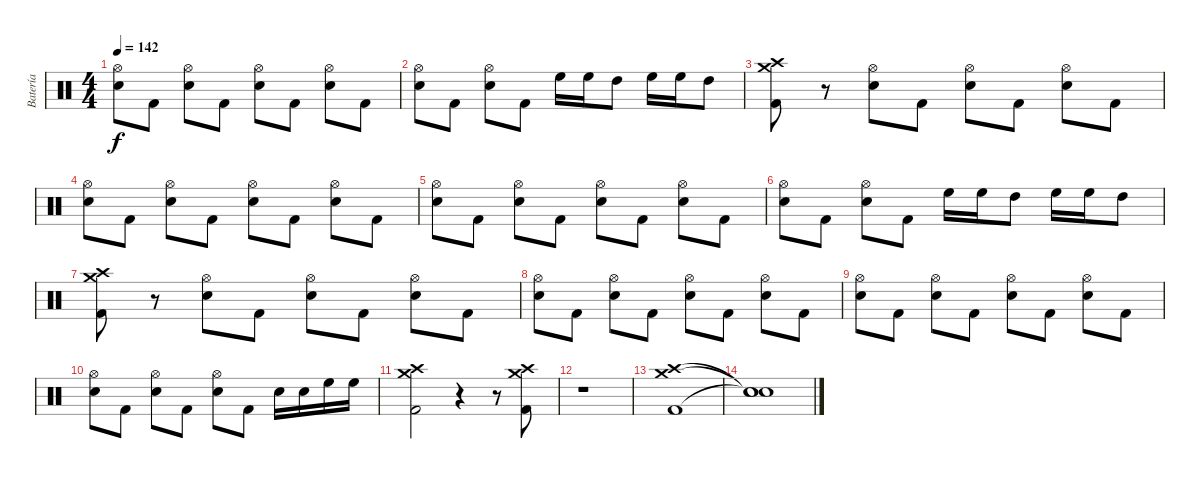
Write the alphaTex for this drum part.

\track ("Batería" "Batería") {instrument percussion}
\staff {score}
\articulation defaults
\ts (4 4)
\tempo 142
\clef neutral
\ks c
("Hi-Hat (open)" "Electric Snare (hit)").8{dy f} "Kick (hit) 2".8 ("Hi-Hat (open)" "Electric Snare (hit)").8 "Kick (hit) 2".8 ("Hi-Hat (open)" "Electric Snare (hit)").8 "Kick (hit) 2".8 ("Hi-Hat (open)" "Electric Snare (hit)").8 "Kick (hit) 2".8 |
("Hi-Hat (open)" "Electric Snare (hit)").8 "Kick (hit) 2".8 ("Hi-Hat (open)" "Electric Snare (hit)").8 "Kick (hit) 2".8 "High Floor Tom (hit)".16 "High Floor Tom (hit)".16 "High Tom (hit)".8 "High Floor Tom (hit)".16 "High Floor Tom (hit)".16 "High Tom (hit)".8 |
("Crash high (hit)" "Crash medium (hit)" "Kick (hit) 2").8 r.8 ("Hi-Hat (open)" "Electric Snare (hit)").8 "Kick (hit) 2".8 ("Hi-Hat (open)" "Electric Snare (hit)").8 "Kick (hit) 2".8 ("Hi-Hat (open)" "Electric Snare (hit)").8 "Kick (hit) 2".8 |
("Hi-Hat (open)" "Electric Snare (hit)").8 "Kick (hit) 2".8 ("Hi-Hat (open)" "Electric Snare (hit)").8 "Kick (hit) 2".8 ("Hi-Hat (open)" "Electric Snare (hit)").8 "Kick (hit) 2".8 ("Hi-Hat (open)" "Electric Snare (hit)").8 "Kick (hit) 2".8 |
("Hi-Hat (open)" "Electric Snare (hit)").8 "Kick (hit) 2".8 ("Hi-Hat (open)" "Electric Snare (hit)").8 "Kick (hit) 2".8 ("Hi-Hat (open)" "Electric Snare (hit)").8 "Kick (hit) 2".8 ("Hi-Hat (open)" "Electric Snare (hit)").8 "Kick (hit) 2".8 |
("Hi-Hat (open)" "Electric Snare (hit)").8 "Kick (hit) 2".8 ("Hi-Hat (open)" "Electric Snare (hit)").8 "Kick (hit) 2".8 "High Floor Tom (hit)".16 "High Floor Tom (hit)".16 "High Tom (hit)".8 "High Floor Tom (hit)".16 "High Floor Tom (hit)".16 "High Tom (hit)".8 |
("Crash high (hit)" "Crash medium (hit)" "Kick (hit) 2").8 r.8 ("Hi-Hat (open)" "Electric Snare (hit)").8 "Kick (hit) 2".8 ("Hi-Hat (open)" "Electric Snare (hit)").8 "Kick (hit) 2".8 ("Hi-Hat (open)" "Electric Snare (hit)").8 "Kick (hit) 2".8 |
("Hi-Hat (open)" "Electric Snare (hit)").8 "Kick (hit) 2".8 ("Hi-Hat (open)" "Electric Snare (hit)").8 "Kick (hit) 2".8 ("Hi-Hat (open)" "Electric Snare (hit)").8 "Kick (hit) 2".8 ("Hi-Hat (open)" "Electric Snare (hit)").8 "Kick (hit) 2".8 |
("Hi-Hat (open)" "Electric Snare (hit)").8 "Kick (hit) 2".8 ("Hi-Hat (open)" "Electric Snare (hit)").8 "Kick (hit) 2".8 ("Hi-Hat (open)" "Electric Snare (hit)").8 "Kick (hit) 2".8 ("Hi-Hat (open)" "Electric Snare (hit)").8 "Kick (hit) 2".8 |
("Hi-Hat (open)" "Electric Snare (hit)").8 "Kick (hit) 2".8 ("Hi-Hat (open)" "Electric Snare (hit)").8 "Kick (hit) 2".8 ("Hi-Hat (open)" "Electric Snare (hit)").8 "Kick (hit) 2".8 "Electric Snare (hit)".16 "Electric Snare (hit)".16 "High Floor Tom (hit)".16 "High Floor Tom (hit)".16 |
("Crash high (hit)" "Crash medium (hit)" "Kick (hit) 2").2 r.4 r.8 ("Crash high (hit)" "Crash medium (hit)" "Kick (hit) 2").8 |
r.1 |
("Crash high (hit)" "Crash medium (hit)" "Kick (hit) 2").1 |
("Snare (hit)"{t} "Snare (hit)"{t} "Snare (hit)"{t}).1
